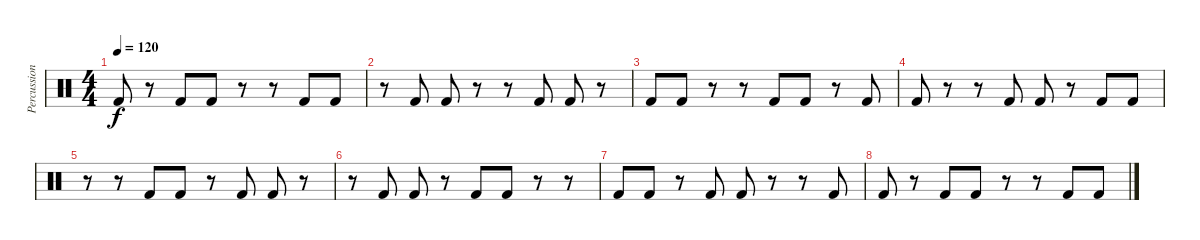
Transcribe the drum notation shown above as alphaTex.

\track ("Percussion" "Percussion") {instrument percussion}
\staff {score}
\articulation defaults
\ts (4 4)
\tempo 120
\clef neutral
\ks c "Kick (hit) 2".8{dy f}
r.8 "Kick (hit) 2".8 "Kick (hit) 2".8 r.8 r.8 "Kick (hit) 2".8 "Kick (hit) 2".8 |
r.8 "Kick (hit) 2".8 "Kick (hit) 2".8 r.8 r.8 "Kick (hit) 2".8 "Kick (hit) 2".8 r.8 |
"Kick (hit) 2".8 "Kick (hit) 2".8 r.8 r.8 "Kick (hit) 2".8 "Kick (hit) 2".8 r.8 "Kick (hit) 2".8 |
"Kick (hit) 2".8 r.8 r.8 "Kick (hit) 2".8 "Kick (hit) 2".8 r.8 "Kick (hit) 2".8 "Kick (hit) 2".8 |
r.8 r.8 "Kick (hit) 2".8 "Kick (hit) 2".8 r.8 "Kick (hit) 2".8 "Kick (hit) 2".8 r.8 |
r.8 "Kick (hit) 2".8 "Kick (hit) 2".8 r.8 "Kick (hit) 2".8 "Kick (hit) 2".8 r.8 r.8 |
"Kick (hit) 2".8 "Kick (hit) 2".8 r.8 "Kick (hit) 2".8 "Kick (hit) 2".8 r.8 r.8 "Kick (hit) 2".8 |
"Kick (hit) 2".8 r.8 "Kick (hit) 2".8 "Kick (hit) 2".8 r.8 r.8 "Kick (hit) 2".8 "Kick (hit) 2".8
